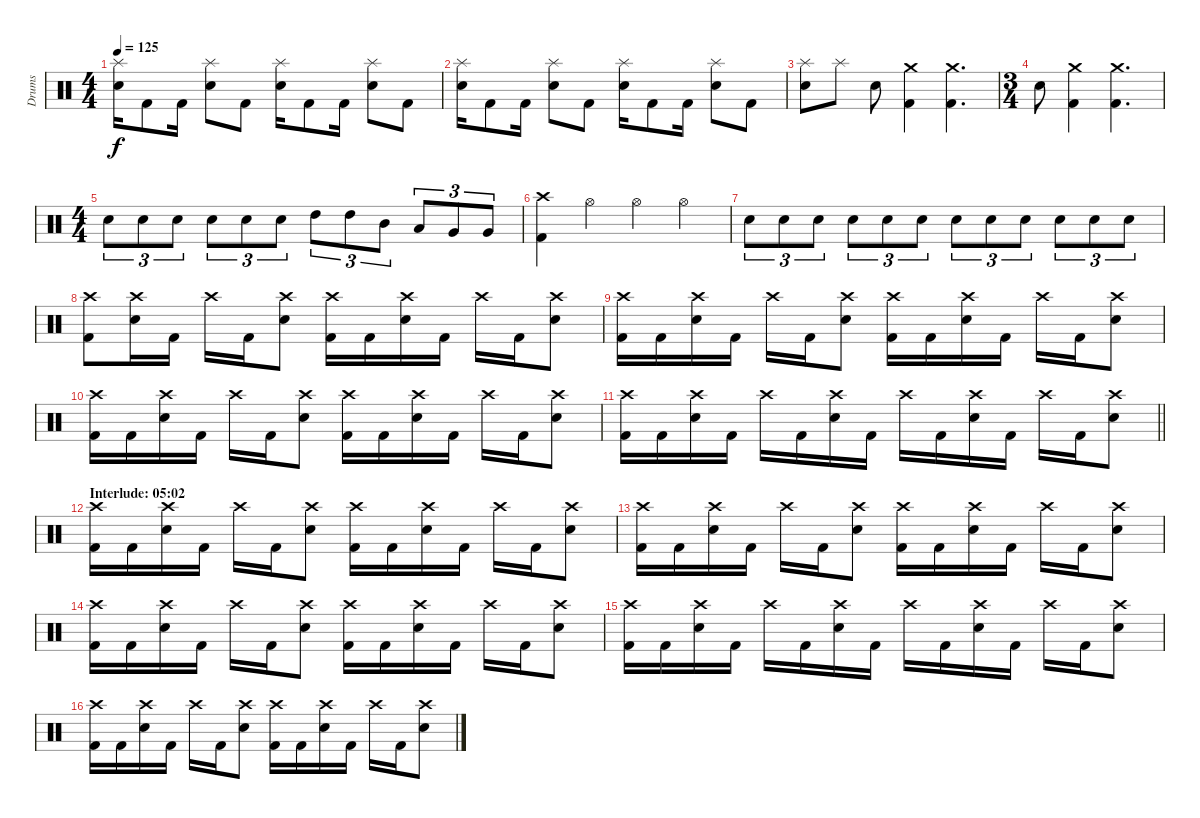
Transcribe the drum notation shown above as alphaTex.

\track ("Drums" "Drums") {instrument percussion}
\staff {score}
\articulation defaults
\ts (4 4)
\tempo 125
\clef neutral
\ks c
("Splash (hit)" "Electric Snare (hit)").16{dy f} "Kick (hit) 2".8 "Kick (hit) 2".16 ("Splash (hit)" "Electric Snare (hit)").8 "Kick (hit) 2".8 ("Splash (hit)" "Electric Snare (hit)").16 "Kick (hit) 2".8 "Kick (hit) 2".16 ("Splash (hit)" "Electric Snare (hit)").8 "Kick (hit) 2".8 |
("Splash (hit)" "Electric Snare (hit)").16 "Kick (hit) 2".8 "Kick (hit) 2".16 ("Splash (hit)" "Electric Snare (hit)").8 "Kick (hit) 2".8 ("Splash (hit)" "Electric Snare (hit)").16 "Kick (hit) 2".8 "Kick (hit) 2".16 ("Splash (hit)" "Electric Snare (hit)").8 "Kick (hit) 2".8 |
("Splash (hit)" "Electric Snare (hit)").8 "Splash (hit)".8 "Electric Snare (hit)".8 ("Crash medium (hit)" "Kick (hit) 2").4 ("Crash medium (hit)" "Kick (hit) 2").4{d} |
\ts (3 4)
"Electric Snare (hit)".8 ("Crash medium (hit)" "Kick (hit) 2").4 ("Crash medium (hit)" "Kick (hit) 2").4{d} |
\ts (4 4)
"Electric Snare (hit)".8{tu (3 2)} "Electric Snare (hit)".8{tu (3 2)} "Electric Snare (hit)".8{tu (3 2)} "Electric Snare (hit)".8{tu (3 2)} "Electric Snare (hit)".8{tu (3 2)} "Electric Snare (hit)".8{tu (3 2)} "High Tom (hit)".8{tu (3 2)} "High Tom (hit)".8{tu (3 2)} "Mid Tom (hit)".8{tu (3 2)} "Low Tom (hit)".8{tu (3 2)} "Very Low Tom (hit)".8{tu (3 2)} "Very Low Tom (hit)".8{tu (3 2)} |
("Crash high (hit)" "Kick (hit) 2").4 "Hi-Hat (open)".4 "Hi-Hat (open)".4 "Hi-Hat (open)".4 |
"Electric Snare (hit)".8{tu (3 2)} "Electric Snare (hit)".8{tu (3 2)} "Electric Snare (hit)".8{tu (3 2)} "Electric Snare (hit)".8{tu (3 2)} "Electric Snare (hit)".8{tu (3 2)} "Electric Snare (hit)".8{tu (3 2)} "Electric Snare (hit)".8{tu (3 2)} "Electric Snare (hit)".8{tu (3 2)} "Electric Snare (hit)".8{tu (3 2)} "Electric Snare (hit)".8{tu (3 2)} "Electric Snare (hit)".8{tu (3 2)} "Electric Snare (hit)".8{tu (3 2)} |
("Crash high (hit)" "Kick (hit) 2").8 ("Crash high (hit)" "Electric Snare (hit)").16 "Kick (hit) 2".16 "Crash high (hit)".16 "Kick (hit) 2".16 ("Crash high (hit)" "Electric Snare (hit)").8 ("Crash high (hit)" "Kick (hit) 2").16 "Kick (hit) 2".16 ("Crash high (hit)" "Electric Snare (hit)").16 "Kick (hit) 2".16 "Crash high (hit)".16 "Kick (hit) 2".16 ("Crash high (hit)" "Electric Snare (hit)").8 |
("Crash high (hit)" "Kick (hit) 2").16 "Kick (hit) 2".16 ("Crash high (hit)" "Electric Snare (hit)").16 "Kick (hit) 2".16 "Crash high (hit)".16 "Kick (hit) 2".16 ("Crash high (hit)" "Electric Snare (hit)").8 ("Crash high (hit)" "Kick (hit) 2").16 "Kick (hit) 2".16 ("Crash high (hit)" "Electric Snare (hit)").16 "Kick (hit) 2".16 "Crash high (hit)".16 "Kick (hit) 2".16 ("Crash high (hit)" "Electric Snare (hit)").8 |
("Crash high (hit)" "Kick (hit) 2").16 "Kick (hit) 2".16 ("Crash high (hit)" "Electric Snare (hit)").16 "Kick (hit) 2".16 "Crash high (hit)".16 "Kick (hit) 2".16 ("Crash high (hit)" "Electric Snare (hit)").8 ("Crash high (hit)" "Kick (hit) 2").16 "Kick (hit) 2".16 ("Crash high (hit)" "Electric Snare (hit)").16 "Kick (hit) 2".16 "Crash high (hit)".16 "Kick (hit) 2".16 ("Crash high (hit)" "Electric Snare (hit)").8 |
\barLineRight lightlight
("Crash high (hit)" "Kick (hit) 2").16 "Kick (hit) 2".16 ("Crash high (hit)" "Electric Snare (hit)").16 "Kick (hit) 2".16 "Crash high (hit)".16 "Kick (hit) 2".16 ("Crash high (hit)" "Electric Snare (hit)").16 "Kick (hit) 2".16 "Crash high (hit)".16 "Kick (hit) 2".16 ("Crash high (hit)" "Electric Snare (hit)").16 "Kick (hit) 2".16 "Crash high (hit)".16 "Kick (hit) 2".16 ("Crash high (hit)" "Electric Snare (hit)").8 |
\section ("" "Interlude: 05:02")
("Crash high (hit)" "Kick (hit) 2").16 "Kick (hit) 2".16 ("Crash high (hit)" "Electric Snare (hit)").16 "Kick (hit) 2".16 "Crash high (hit)".16 "Kick (hit) 2".16 ("Crash high (hit)" "Electric Snare (hit)").8 ("Crash high (hit)" "Kick (hit) 2").16 "Kick (hit) 2".16 ("Crash high (hit)" "Electric Snare (hit)").16 "Kick (hit) 2".16 "Crash high (hit)".16 "Kick (hit) 2".16 ("Crash high (hit)" "Electric Snare (hit)").8 |
("Crash high (hit)" "Kick (hit) 2").16 "Kick (hit) 2".16 ("Crash high (hit)" "Electric Snare (hit)").16 "Kick (hit) 2".16 "Crash high (hit)".16 "Kick (hit) 2".16 ("Crash high (hit)" "Electric Snare (hit)").8 ("Crash high (hit)" "Kick (hit) 2").16 "Kick (hit) 2".16 ("Crash high (hit)" "Electric Snare (hit)").16 "Kick (hit) 2".16 "Crash high (hit)".16 "Kick (hit) 2".16 ("Crash high (hit)" "Electric Snare (hit)").8 |
("Crash high (hit)" "Kick (hit) 2").16 "Kick (hit) 2".16 ("Crash high (hit)" "Electric Snare (hit)").16 "Kick (hit) 2".16 "Crash high (hit)".16 "Kick (hit) 2".16 ("Crash high (hit)" "Electric Snare (hit)").8 ("Crash high (hit)" "Kick (hit) 2").16 "Kick (hit) 2".16 ("Crash high (hit)" "Electric Snare (hit)").16 "Kick (hit) 2".16 "Crash high (hit)".16 "Kick (hit) 2".16 ("Crash high (hit)" "Electric Snare (hit)").8 |
("Crash high (hit)" "Kick (hit) 2").16 "Kick (hit) 2".16 ("Crash high (hit)" "Electric Snare (hit)").16 "Kick (hit) 2".16 "Crash high (hit)".16 "Kick (hit) 2".16 ("Crash high (hit)" "Electric Snare (hit)").16 "Kick (hit) 2".16 "Crash high (hit)".16 "Kick (hit) 2".16 ("Crash high (hit)" "Electric Snare (hit)").16 "Kick (hit) 2".16 "Crash high (hit)".16 "Kick (hit) 2".16 ("Crash high (hit)" "Electric Snare (hit)").8 |
("Crash high (hit)" "Kick (hit) 2").16 "Kick (hit) 2".16 ("Crash high (hit)" "Electric Snare (hit)").16 "Kick (hit) 2".16 "Crash high (hit)".16 "Kick (hit) 2".16 ("Crash high (hit)" "Electric Snare (hit)").8 ("Crash high (hit)" "Kick (hit) 2").16 "Kick (hit) 2".16 ("Crash high (hit)" "Electric Snare (hit)").16 "Kick (hit) 2".16 "Crash high (hit)".16 "Kick (hit) 2".16 ("Crash high (hit)" "Electric Snare (hit)").8
